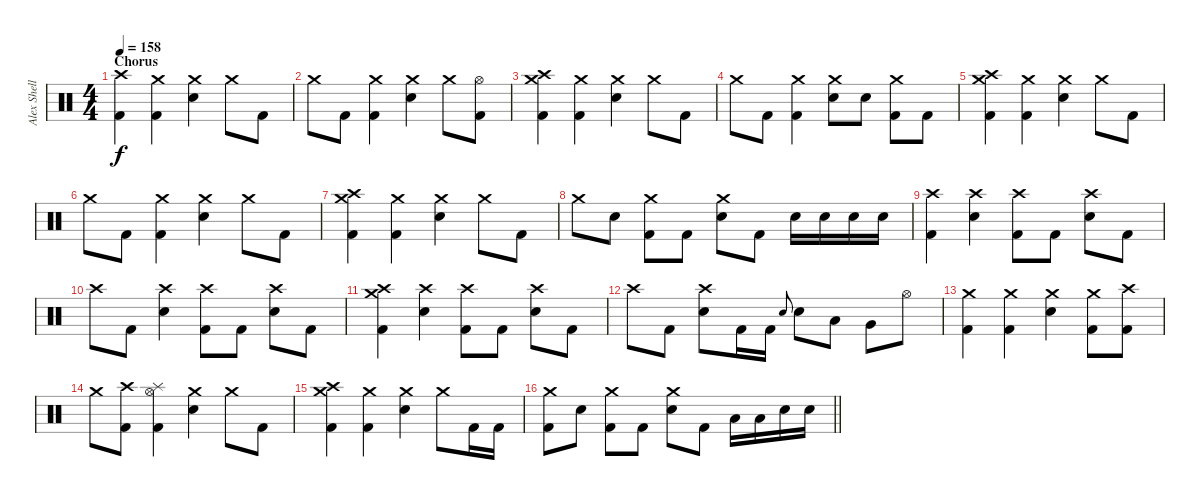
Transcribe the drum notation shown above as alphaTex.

\track ("Alex Shellnut" "Alex Shell") {instrument percussion}
\staff {score}
\articulation defaults
\ts (4 4)
\section ("" "Chorus")
\tempo 158
\clef neutral
\ks c
("Crash high (hit)" "Kick (hit) 2").4{dy f} ("Crash medium (hit)" "Kick (hit) 2").4 ("Crash medium (hit)" "Electric Snare (hit)").4 "Crash medium (hit)".8 "Kick (hit) 2".8 |
"Crash medium (hit)".8 "Kick (hit) 2".8 ("Crash medium (hit)" "Kick (hit) 2").4 ("Crash medium (hit)" "Electric Snare (hit)").4 "Crash medium (hit)".8 ("Hi-Hat (open)" "Kick (hit) 2").8 |
("Crash medium (hit)" "Crash high (hit)" "Kick (hit) 2").4 ("Crash medium (hit)" "Kick (hit) 2").4 ("Crash medium (hit)" "Electric Snare (hit)").4 "Crash medium (hit)".8 "Kick (hit) 2".8 |
"Crash medium (hit)".8 "Kick (hit) 2".8 ("Crash medium (hit)" "Kick (hit) 2").4 ("Crash medium (hit)" "Electric Snare (hit)").8 "Electric Snare (hit)".8 ("Crash medium (hit)" "Kick (hit) 2").8 "Kick (hit) 2".8 |
("Crash medium (hit)" "Crash high (hit)" "Kick (hit) 2").4 ("Crash medium (hit)" "Kick (hit) 2").4 ("Crash medium (hit)" "Electric Snare (hit)").4 "Crash medium (hit)".8 "Kick (hit) 2".8 |
"Crash medium (hit)".8 "Kick (hit) 2".8 ("Crash medium (hit)" "Kick (hit) 2").4 ("Crash medium (hit)" "Electric Snare (hit)").4 "Crash medium (hit)".8 "Kick (hit) 2".8 |
("Crash medium (hit)" "Crash high (hit)" "Kick (hit) 2").4 ("Crash medium (hit)" "Kick (hit) 2").4 ("Crash medium (hit)" "Electric Snare (hit)").4 "Crash medium (hit)".8 "Kick (hit) 2".8 |
"Crash medium (hit)".8 "Electric Snare (hit)".8 ("Crash medium (hit)" "Kick (hit) 2").8 "Kick (hit) 2".8 ("Crash medium (hit)" "Electric Snare (hit)").8 "Kick (hit) 2".8 "Electric Snare (hit)".16 "Electric Snare (hit)".16 "Electric Snare (hit)".16 "Electric Snare (hit)".16 |
("Crash high (hit)" "Kick (hit) 2").4 ("Crash high (hit)" "Electric Snare (hit)").4 ("Crash high (hit)" "Kick (hit) 2").8 "Kick (hit) 2".8 ("Crash high (hit)" "Electric Snare (hit)").8 "Kick (hit) 2".8 |
"Crash high (hit)".8 "Kick (hit) 2".8 ("Crash high (hit)" "Electric Snare (hit)").4 ("Crash high (hit)" "Kick (hit) 2").8 "Kick (hit) 2".8 ("Crash high (hit)" "Electric Snare (hit)").8 "Kick (hit) 2".8 |
("Crash medium (hit)" "Crash high (hit)" "Kick (hit) 2").4 ("Crash high (hit)" "Electric Snare (hit)").4 ("Crash high (hit)" "Kick (hit) 2").8 "Kick (hit) 2".8 ("Crash high (hit)" "Electric Snare (hit)").8 "Kick (hit) 2".8 |
"Crash high (hit)".8 "Kick (hit) 2".8 ("Crash high (hit)" "Electric Snare (hit)").8 "Kick (hit) 2".16 "Kick (hit) 2".16 "Electric Snare (hit)".8{gr onbeat} "Electric Snare (hit)".8 "Low Tom (hit)".8 "Very Low Tom (hit)".8 "Hi-Hat (open)".8 |
("Crash medium (hit)" "Kick (hit) 2").4 ("Crash medium (hit)" "Kick (hit) 2").4 ("Crash medium (hit)" "Electric Snare (hit)").4 ("Crash medium (hit)" "Kick (hit) 2").8 ("Crash high (hit)" "Kick (hit) 2").8 |
"Crash medium (hit)".8 ("Crash high (hit)" "Kick (hit) 2").8 ("Splash (hit)" "Hi-Hat (open)" "Kick (hit) 2").4 ("Crash medium (hit)" "Electric Snare (hit)").4 "Crash medium (hit)".8 "Kick (hit) 2".8 |
("Crash medium (hit)" "Crash high (hit)" "Kick (hit) 2").4 ("Crash medium (hit)" "Kick (hit) 2").4 ("Crash medium (hit)" "Electric Snare (hit)").4 "Crash medium (hit)".8 "Kick (hit) 2".16 "Kick (hit) 2".16 |
\barLineRight lightlight
("Crash medium (hit)" "Kick (hit) 2").8 "Electric Snare (hit)".8 ("Crash medium (hit)" "Kick (hit) 2").8 "Kick (hit) 2".8 ("Crash medium (hit)" "Electric Snare (hit)").8 "Kick (hit) 2".8 "Low Tom (hit)".16 "Low Tom (hit)".16 "Electric Snare (hit)".16 "Electric Snare (hit)".16
